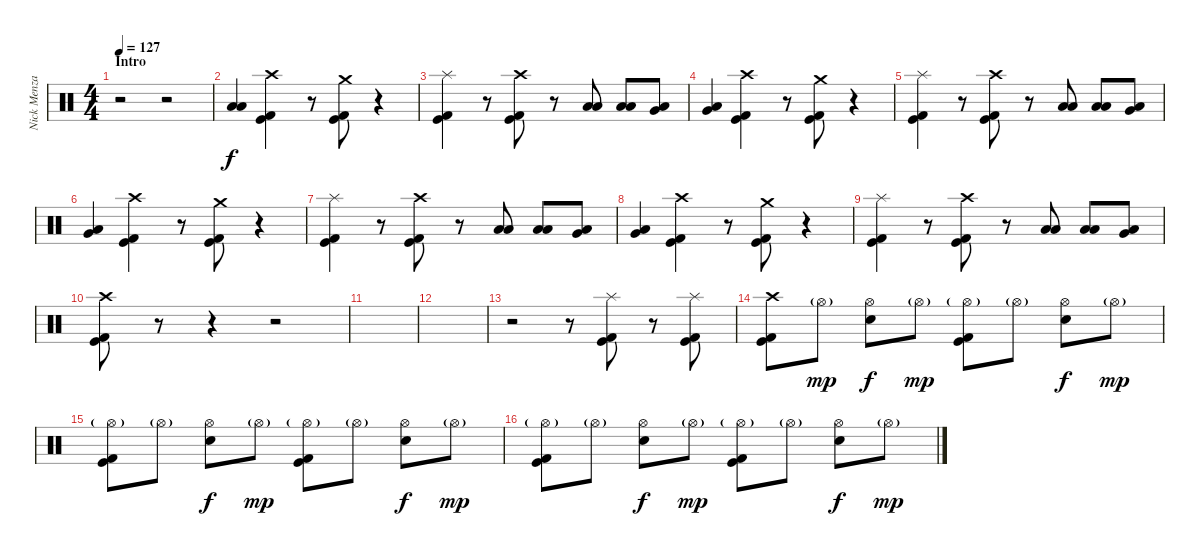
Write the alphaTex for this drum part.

\track ("Nick Menza (Drums)" "Nick Menza") {instrument percussion}
\staff {score}
\articulation defaults
\ts (4 4)
\section ("" "Intro")
\tempo 127
\clef neutral
\ks c
r.2{dy f} r.2 |
("Low Tom (hit)" "Low Floor Tom (hit)").4 ("Crash high (hit)" "Kick (hit)" "Kick (hit) 2").4 r.8 ("Crash medium (hit)" "Kick (hit)" "Kick (hit) 2").8 r.4 |
("Splash (hit)" "Kick (hit)" "Kick (hit) 2").4 r.8 ("Crash high (hit)" "Kick (hit)" "Kick (hit) 2").8 r.8 ("Low Tom (hit)" "Low Floor Tom (hit)").8 ("Low Tom (hit)" "Low Floor Tom (hit)").8 ("Very Low Tom (hit)" "Low Floor Tom (hit)").8 |
("Very Low Tom (hit)" "Low Floor Tom (hit)").4 ("Crash high (hit)" "Kick (hit)" "Kick (hit) 2").4 r.8 ("Crash medium (hit)" "Kick (hit)" "Kick (hit) 2").8 r.4 |
("Splash (hit)" "Kick (hit)" "Kick (hit) 2").4 r.8 ("Crash high (hit)" "Kick (hit)" "Kick (hit) 2").8 r.8 ("Low Tom (hit)" "Low Floor Tom (hit)").8 ("Low Tom (hit)" "Low Floor Tom (hit)").8 ("Very Low Tom (hit)" "Low Floor Tom (hit)").8 |
("Very Low Tom (hit)" "Low Floor Tom (hit)").4 ("Crash high (hit)" "Kick (hit)" "Kick (hit) 2").4 r.8 ("Crash medium (hit)" "Kick (hit)" "Kick (hit) 2").8 r.4 |
("Splash (hit)" "Kick (hit)" "Kick (hit) 2").4 r.8 ("Crash high (hit)" "Kick (hit)" "Kick (hit) 2").8 r.8 ("Low Tom (hit)" "Low Floor Tom (hit)").8 ("Low Tom (hit)" "Low Floor Tom (hit)").8 ("Very Low Tom (hit)" "Low Floor Tom (hit)").8 |
("Very Low Tom (hit)" "Low Floor Tom (hit)").4 ("Crash high (hit)" "Kick (hit)" "Kick (hit) 2").4 r.8 ("Crash medium (hit)" "Kick (hit)" "Kick (hit) 2").8 r.4 |
("Splash (hit)" "Kick (hit)" "Kick (hit) 2").4 r.8 ("Crash high (hit)" "Kick (hit)" "Kick (hit) 2").8 r.8 ("Low Tom (hit)" "Low Floor Tom (hit)").8 ("Low Tom (hit)" "Low Floor Tom (hit)").8 ("Very Low Tom (hit)" "Low Floor Tom (hit)").8 |
("Crash high (hit)" "Kick (hit)" "Kick (hit) 2").8 r.8 r.4 r.2 |
|
|
r.2 r.8 ("Splash (hit)" "Kick (hit)" "Kick (hit) 2").8 r.8 ("Splash (hit)" "Kick (hit)" "Kick (hit) 2").8 |
("Crash high (hit)" "Kick (hit)" "Kick (hit) 2").8 "Hi-Hat (open)"{g}.8{dy mp} ("Hi-Hat (open)" "Electric Snare (hit)").8{dy f} "Hi-Hat (open)"{g}.8{dy mp} ("Hi-Hat (open)"{g} "Kick (hit)" "Kick (hit) 2").8 "Hi-Hat (open)"{g}.8 ("Hi-Hat (open)" "Electric Snare (hit)").8{dy f} "Hi-Hat (open)"{g}.8{dy mp} |
("Hi-Hat (open)"{g} "Kick (hit)" "Kick (hit) 2").8 "Hi-Hat (open)"{g}.8 ("Hi-Hat (open)" "Electric Snare (hit)").8{dy f} "Hi-Hat (open)"{g}.8{dy mp} ("Hi-Hat (open)"{g} "Kick (hit)" "Kick (hit) 2").8 "Hi-Hat (open)"{g}.8 ("Hi-Hat (open)" "Electric Snare (hit)").8{dy f} "Hi-Hat (open)"{g}.8{dy mp} |
("Hi-Hat (open)"{g} "Kick (hit)" "Kick (hit) 2").8 "Hi-Hat (open)"{g}.8 ("Hi-Hat (open)" "Electric Snare (hit)").8{dy f} "Hi-Hat (open)"{g}.8{dy mp} ("Hi-Hat (open)"{g} "Kick (hit)" "Kick (hit) 2").8 "Hi-Hat (open)"{g}.8 ("Hi-Hat (open)" "Electric Snare (hit)").8{dy f} "Hi-Hat (open)"{g}.8{dy mp}
